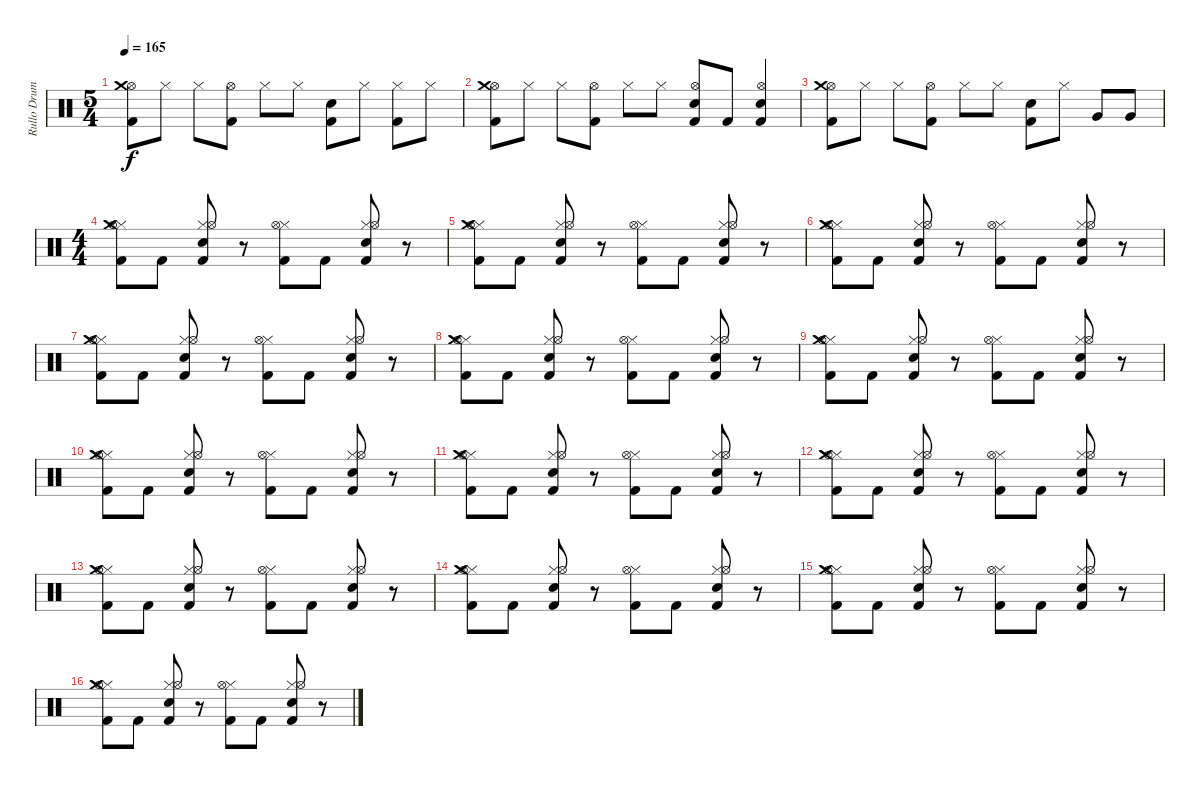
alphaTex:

\track ("Rullo Drums" "Rullo Drum") {instrument percussion}
\staff {score}
\articulation defaults
\ts (5 4)
\tempo 165
\clef neutral
\ks c
("Kick (hit) 2" "Hi-Hat (open)" "Crash medium (hit)").8{dy f} "Hi-Hat (closed)".8 "Hi-Hat (closed)".8 ("Kick (hit) 2" "Hi-Hat (open)").8 "Hi-Hat (closed)".8 "Hi-Hat (closed)".8 ("Kick (hit) 2" "Snare (hit) 2").8 "Hi-Hat (closed)".8 ("Hi-Hat (closed)" "Kick (hit) 2").8 "Hi-Hat (closed)".8 |
("Kick (hit) 2" "Hi-Hat (open)" "Crash medium (hit)").8 "Hi-Hat (closed)".8 "Hi-Hat (closed)".8 ("Kick (hit) 2" "Hi-Hat (open)").8 "Hi-Hat (closed)".8 "Hi-Hat (closed)".8 ("Kick (hit) 2" "Snare (hit) 2" "Hi-Hat (open)").8 "Kick (hit) 2".8 ("Kick (hit) 2" "Snare (hit) 2" "Hi-Hat (open)").4 |
("Kick (hit) 2" "Hi-Hat (open)" "Crash medium (hit)").8 "Hi-Hat (closed)".8 "Hi-Hat (closed)".8 ("Kick (hit) 2" "Hi-Hat (open)").8 "Hi-Hat (closed)".8 "Hi-Hat (closed)".8 ("Kick (hit) 2" "Snare (hit) 2").8 "Hi-Hat (closed)".8 "Very Low Tom (hit)".8 "Very Low Tom (hit)".8 |
\ts (4 4)
("Hi-Hat (closed)" "Kick (hit) 2" "Crash medium (hit)" "Hi-Hat (open)").8 "Kick (hit) 2".8 ("Electric Snare (hit)" "Hi-Hat (closed)" "Kick (hit) 2" "Hi-Hat (open)").8 r.8 ("Hi-Hat (closed)" "Kick (hit) 2" "Hi-Hat (open)").8 "Kick (hit) 2".8 ("Hi-Hat (closed)" "Electric Snare (hit)" "Kick (hit) 2" "Hi-Hat (open)").8 r.8 |
("Hi-Hat (closed)" "Kick (hit) 2" "Crash medium (hit)" "Hi-Hat (open)").8 "Kick (hit) 2".8 ("Electric Snare (hit)" "Hi-Hat (closed)" "Kick (hit) 2" "Hi-Hat (open)").8 r.8 ("Hi-Hat (closed)" "Kick (hit) 2" "Hi-Hat (open)").8 "Kick (hit) 2".8 ("Hi-Hat (closed)" "Electric Snare (hit)" "Kick (hit) 2" "Hi-Hat (open)").8 r.8 |
("Hi-Hat (closed)" "Kick (hit) 2" "Crash medium (hit)" "Hi-Hat (open)").8 "Kick (hit) 2".8 ("Electric Snare (hit)" "Hi-Hat (closed)" "Kick (hit) 2" "Hi-Hat (open)").8 r.8 ("Hi-Hat (closed)" "Kick (hit) 2" "Hi-Hat (open)").8 "Kick (hit) 2".8 ("Hi-Hat (closed)" "Electric Snare (hit)" "Kick (hit) 2" "Hi-Hat (open)").8 r.8 |
("Hi-Hat (closed)" "Kick (hit) 2" "Crash medium (hit)" "Hi-Hat (open)").8 "Kick (hit) 2".8 ("Electric Snare (hit)" "Hi-Hat (closed)" "Kick (hit) 2" "Hi-Hat (open)").8 r.8 ("Hi-Hat (closed)" "Kick (hit) 2" "Hi-Hat (open)").8 "Kick (hit) 2".8 ("Hi-Hat (closed)" "Electric Snare (hit)" "Kick (hit) 2" "Hi-Hat (open)").8 r.8 |
("Hi-Hat (closed)" "Kick (hit) 2" "Crash medium (hit)" "Hi-Hat (open)").8 "Kick (hit) 2".8 ("Electric Snare (hit)" "Hi-Hat (closed)" "Kick (hit) 2" "Hi-Hat (open)").8 r.8 ("Hi-Hat (closed)" "Kick (hit) 2" "Hi-Hat (open)").8 "Kick (hit) 2".8 ("Hi-Hat (closed)" "Electric Snare (hit)" "Kick (hit) 2" "Hi-Hat (open)").8 r.8 |
("Hi-Hat (closed)" "Kick (hit) 2" "Crash medium (hit)" "Hi-Hat (open)").8 "Kick (hit) 2".8 ("Electric Snare (hit)" "Hi-Hat (closed)" "Kick (hit) 2" "Hi-Hat (open)").8 r.8 ("Hi-Hat (closed)" "Kick (hit) 2" "Hi-Hat (open)").8 "Kick (hit) 2".8 ("Hi-Hat (closed)" "Electric Snare (hit)" "Kick (hit) 2" "Hi-Hat (open)").8 r.8 |
("Hi-Hat (closed)" "Kick (hit) 2" "Crash medium (hit)" "Hi-Hat (open)").8 "Kick (hit) 2".8 ("Electric Snare (hit)" "Hi-Hat (closed)" "Kick (hit) 2" "Hi-Hat (open)").8 r.8 ("Hi-Hat (closed)" "Kick (hit) 2" "Hi-Hat (open)").8 "Kick (hit) 2".8 ("Hi-Hat (closed)" "Electric Snare (hit)" "Kick (hit) 2" "Hi-Hat (open)").8 r.8 |
("Hi-Hat (closed)" "Kick (hit) 2" "Crash medium (hit)" "Hi-Hat (open)").8 "Kick (hit) 2".8 ("Electric Snare (hit)" "Hi-Hat (closed)" "Kick (hit) 2" "Hi-Hat (open)").8 r.8 ("Hi-Hat (closed)" "Kick (hit) 2" "Hi-Hat (open)").8 "Kick (hit) 2".8 ("Hi-Hat (closed)" "Electric Snare (hit)" "Kick (hit) 2" "Hi-Hat (open)").8 r.8 |
("Hi-Hat (closed)" "Kick (hit) 2" "Crash medium (hit)" "Hi-Hat (open)").8 "Kick (hit) 2".8 ("Electric Snare (hit)" "Hi-Hat (closed)" "Kick (hit) 2" "Hi-Hat (open)").8 r.8 ("Hi-Hat (closed)" "Kick (hit) 2" "Hi-Hat (open)").8 "Kick (hit) 2".8 ("Hi-Hat (closed)" "Electric Snare (hit)" "Kick (hit) 2" "Hi-Hat (open)").8 r.8 |
("Hi-Hat (closed)" "Kick (hit) 2" "Crash medium (hit)" "Hi-Hat (open)").8 "Kick (hit) 2".8 ("Electric Snare (hit)" "Hi-Hat (closed)" "Kick (hit) 2" "Hi-Hat (open)").8 r.8 ("Hi-Hat (closed)" "Kick (hit) 2" "Hi-Hat (open)").8 "Kick (hit) 2".8 ("Hi-Hat (closed)" "Electric Snare (hit)" "Kick (hit) 2" "Hi-Hat (open)").8 r.8 |
("Hi-Hat (closed)" "Kick (hit) 2" "Crash medium (hit)" "Hi-Hat (open)").8 "Kick (hit) 2".8 ("Electric Snare (hit)" "Hi-Hat (closed)" "Kick (hit) 2" "Hi-Hat (open)").8 r.8 ("Hi-Hat (closed)" "Kick (hit) 2" "Hi-Hat (open)").8 "Kick (hit) 2".8 ("Hi-Hat (closed)" "Electric Snare (hit)" "Kick (hit) 2" "Hi-Hat (open)").8 r.8 |
("Hi-Hat (closed)" "Kick (hit) 2" "Crash medium (hit)" "Hi-Hat (open)").8 "Kick (hit) 2".8 ("Electric Snare (hit)" "Hi-Hat (closed)" "Kick (hit) 2" "Hi-Hat (open)").8 r.8 ("Hi-Hat (closed)" "Kick (hit) 2" "Hi-Hat (open)").8 "Kick (hit) 2".8 ("Hi-Hat (closed)" "Electric Snare (hit)" "Kick (hit) 2" "Hi-Hat (open)").8 r.8 |
("Hi-Hat (closed)" "Kick (hit) 2" "Crash medium (hit)" "Hi-Hat (open)").8 "Kick (hit) 2".8 ("Electric Snare (hit)" "Hi-Hat (closed)" "Kick (hit) 2" "Hi-Hat (open)").8 r.8 ("Hi-Hat (closed)" "Kick (hit) 2" "Hi-Hat (open)").8 "Kick (hit) 2".8 ("Hi-Hat (closed)" "Electric Snare (hit)" "Kick (hit) 2" "Hi-Hat (open)").8 r.8
